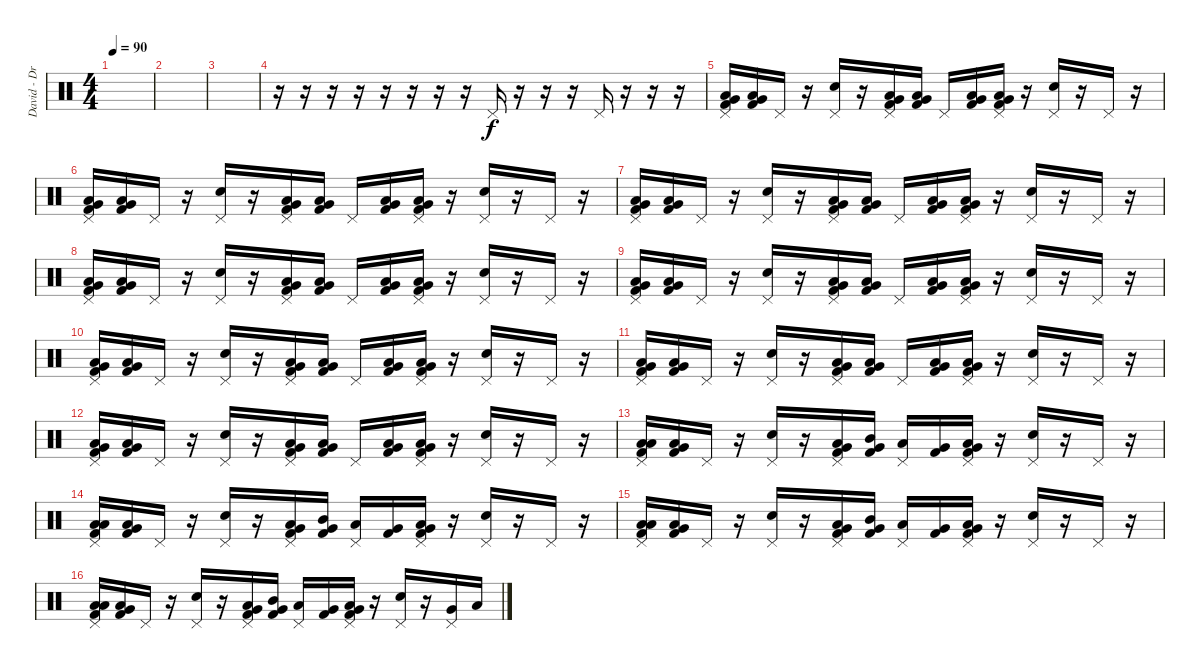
\track ("David - Drums" "David - Dr") {instrument percussion}
\staff {score}
\articulation defaults
\ts (4 4)
\tempo 90
\clef neutral
\ks c
|
|
|
r.16 r.16 r.16 r.16 r.16 r.16 r.16 r.16 "Pedal Hi-Hat (hit)".16 r.16 r.16 r.16 "Pedal Hi-Hat (hit)".16 r.16 r.16 r.16 |
("Pedal Hi-Hat (hit)" "Very Low Tom (hit)" "Low Floor Tom (hit)" "Kick (hit) 2").16 ("Very Low Tom (hit)" "Low Floor Tom (hit)" "Kick (hit) 2").16 "Pedal Hi-Hat (hit)".16 r.16 ("Pedal Hi-Hat (hit)" "Electric Snare (hit)").16 r.16 ("Pedal Hi-Hat (hit)" "Very Low Tom (hit)" "Low Floor Tom (hit)" "Kick (hit) 2").16 ("Very Low Tom (hit)" "Low Floor Tom (hit)" "Kick (hit) 2").16 "Pedal Hi-Hat (hit)".16 ("Very Low Tom (hit)" "Low Floor Tom (hit)" "Kick (hit) 2").16 ("Pedal Hi-Hat (hit)" "Very Low Tom (hit)" "Low Floor Tom (hit)" "Kick (hit) 2").16 r.16 ("Pedal Hi-Hat (hit)" "Electric Snare (hit)").16 r.16 "Pedal Hi-Hat (hit)".16 r.16 |
("Pedal Hi-Hat (hit)" "Very Low Tom (hit)" "Low Floor Tom (hit)" "Kick (hit) 2").16 ("Very Low Tom (hit)" "Low Floor Tom (hit)" "Kick (hit) 2").16 "Pedal Hi-Hat (hit)".16 r.16 ("Pedal Hi-Hat (hit)" "Electric Snare (hit)").16 r.16 ("Pedal Hi-Hat (hit)" "Very Low Tom (hit)" "Low Floor Tom (hit)" "Kick (hit) 2").16 ("Very Low Tom (hit)" "Low Floor Tom (hit)" "Kick (hit) 2").16 "Pedal Hi-Hat (hit)".16 ("Very Low Tom (hit)" "Low Floor Tom (hit)" "Kick (hit) 2").16 ("Pedal Hi-Hat (hit)" "Very Low Tom (hit)" "Low Floor Tom (hit)" "Kick (hit) 2").16 r.16 ("Pedal Hi-Hat (hit)" "Electric Snare (hit)").16 r.16 "Pedal Hi-Hat (hit)".16 r.16 |
("Pedal Hi-Hat (hit)" "Very Low Tom (hit)" "Low Floor Tom (hit)" "Kick (hit) 2").16 ("Very Low Tom (hit)" "Low Floor Tom (hit)" "Kick (hit) 2").16 "Pedal Hi-Hat (hit)".16 r.16 ("Pedal Hi-Hat (hit)" "Electric Snare (hit)").16 r.16 ("Pedal Hi-Hat (hit)" "Very Low Tom (hit)" "Low Floor Tom (hit)" "Kick (hit) 2").16 ("Very Low Tom (hit)" "Low Floor Tom (hit)" "Kick (hit) 2").16 "Pedal Hi-Hat (hit)".16 ("Very Low Tom (hit)" "Low Floor Tom (hit)" "Kick (hit) 2").16 ("Pedal Hi-Hat (hit)" "Very Low Tom (hit)" "Low Floor Tom (hit)" "Kick (hit) 2").16 r.16 ("Pedal Hi-Hat (hit)" "Electric Snare (hit)").16 r.16 "Pedal Hi-Hat (hit)".16 r.16 |
("Pedal Hi-Hat (hit)" "Very Low Tom (hit)" "Low Floor Tom (hit)" "Kick (hit) 2").16 ("Very Low Tom (hit)" "Low Floor Tom (hit)" "Kick (hit) 2").16 "Pedal Hi-Hat (hit)".16 r.16 ("Pedal Hi-Hat (hit)" "Electric Snare (hit)").16 r.16 ("Pedal Hi-Hat (hit)" "Very Low Tom (hit)" "Low Floor Tom (hit)" "Kick (hit) 2").16 ("Very Low Tom (hit)" "Low Floor Tom (hit)" "Kick (hit) 2").16 "Pedal Hi-Hat (hit)".16 ("Very Low Tom (hit)" "Low Floor Tom (hit)" "Kick (hit) 2").16 ("Pedal Hi-Hat (hit)" "Very Low Tom (hit)" "Low Floor Tom (hit)" "Kick (hit) 2").16 r.16 ("Pedal Hi-Hat (hit)" "Electric Snare (hit)").16 r.16 "Pedal Hi-Hat (hit)".16 r.16 |
("Pedal Hi-Hat (hit)" "Very Low Tom (hit)" "Low Floor Tom (hit)" "Kick (hit) 2").16 ("Very Low Tom (hit)" "Low Floor Tom (hit)" "Kick (hit) 2").16 "Pedal Hi-Hat (hit)".16 r.16 ("Pedal Hi-Hat (hit)" "Electric Snare (hit)").16 r.16 ("Pedal Hi-Hat (hit)" "Very Low Tom (hit)" "Low Floor Tom (hit)" "Kick (hit) 2").16 ("Very Low Tom (hit)" "Low Floor Tom (hit)" "Kick (hit) 2").16 "Pedal Hi-Hat (hit)".16 ("Very Low Tom (hit)" "Low Floor Tom (hit)" "Kick (hit) 2").16 ("Pedal Hi-Hat (hit)" "Very Low Tom (hit)" "Low Floor Tom (hit)" "Kick (hit) 2").16 r.16 ("Pedal Hi-Hat (hit)" "Electric Snare (hit)").16 r.16 "Pedal Hi-Hat (hit)".16 r.16 |
("Pedal Hi-Hat (hit)" "Very Low Tom (hit)" "Low Floor Tom (hit)" "Kick (hit) 2").16 ("Very Low Tom (hit)" "Low Floor Tom (hit)" "Kick (hit) 2").16 "Pedal Hi-Hat (hit)".16 r.16 ("Pedal Hi-Hat (hit)" "Electric Snare (hit)").16 r.16 ("Pedal Hi-Hat (hit)" "Very Low Tom (hit)" "Low Floor Tom (hit)" "Kick (hit) 2").16 ("Very Low Tom (hit)" "Low Floor Tom (hit)" "Kick (hit) 2").16 "Pedal Hi-Hat (hit)".16 ("Very Low Tom (hit)" "Low Floor Tom (hit)" "Kick (hit) 2").16 ("Pedal Hi-Hat (hit)" "Very Low Tom (hit)" "Low Floor Tom (hit)" "Kick (hit) 2").16 r.16 ("Pedal Hi-Hat (hit)" "Electric Snare (hit)").16 r.16 "Pedal Hi-Hat (hit)".16 r.16 |
("Pedal Hi-Hat (hit)" "Very Low Tom (hit)" "Low Floor Tom (hit)" "Kick (hit) 2").16 ("Very Low Tom (hit)" "Low Floor Tom (hit)" "Kick (hit) 2").16 "Pedal Hi-Hat (hit)".16 r.16 ("Pedal Hi-Hat (hit)" "Electric Snare (hit)").16 r.16 ("Pedal Hi-Hat (hit)" "Very Low Tom (hit)" "Low Floor Tom (hit)" "Kick (hit) 2").16 ("Very Low Tom (hit)" "Low Floor Tom (hit)" "Kick (hit) 2").16 "Pedal Hi-Hat (hit)".16 ("Very Low Tom (hit)" "Low Floor Tom (hit)" "Kick (hit) 2").16 ("Pedal Hi-Hat (hit)" "Very Low Tom (hit)" "Low Floor Tom (hit)" "Kick (hit) 2").16 r.16 ("Pedal Hi-Hat (hit)" "Electric Snare (hit)").16 r.16 "Pedal Hi-Hat (hit)".16 r.16 |
("Pedal Hi-Hat (hit)" "Very Low Tom (hit)" "Low Floor Tom (hit)" "Kick (hit) 2").16 ("Very Low Tom (hit)" "Low Floor Tom (hit)" "Kick (hit) 2").16 "Pedal Hi-Hat (hit)".16 r.16 ("Pedal Hi-Hat (hit)" "Electric Snare (hit)").16 r.16 ("Pedal Hi-Hat (hit)" "Very Low Tom (hit)" "Low Floor Tom (hit)" "Kick (hit) 2").16 ("Very Low Tom (hit)" "Low Floor Tom (hit)" "Kick (hit) 2").16 "Pedal Hi-Hat (hit)".16 ("Very Low Tom (hit)" "Low Floor Tom (hit)" "Kick (hit) 2").16 ("Pedal Hi-Hat (hit)" "Very Low Tom (hit)" "Low Floor Tom (hit)" "Kick (hit) 2").16 r.16 ("Pedal Hi-Hat (hit)" "Electric Snare (hit)").16 r.16 "Pedal Hi-Hat (hit)".16 r.16 |
("Pedal Hi-Hat (hit)" "Low Tom (hit)" "Low Floor Tom (hit)" "Kick (hit) 2").16 ("Very Low Tom (hit)" "Low Floor Tom (hit)" "Kick (hit) 2").16 "Pedal Hi-Hat (hit)".16 r.16 ("Pedal Hi-Hat (hit)" "Electric Snare (hit)").16 r.16 ("Pedal Hi-Hat (hit)" "Very Low Tom (hit)" "Low Floor Tom (hit)" "Kick (hit) 2").16 ("Very Low Tom (hit)" "Mid Tom (hit)" "Kick (hit) 2").16 ("Pedal Hi-Hat (hit)" "Low Tom (hit)").16 ("Very Low Tom (hit)" "Kick (hit) 2").16 ("Pedal Hi-Hat (hit)" "Very Low Tom (hit)" "Low Floor Tom (hit)" "Kick (hit) 2").16 r.16 ("Pedal Hi-Hat (hit)" "Electric Snare (hit)").16 r.16 "Pedal Hi-Hat (hit)".16 r.16 |
("Pedal Hi-Hat (hit)" "Low Tom (hit)" "Low Floor Tom (hit)" "Kick (hit) 2").16 ("Very Low Tom (hit)" "Low Floor Tom (hit)" "Kick (hit) 2").16 "Pedal Hi-Hat (hit)".16 r.16 ("Pedal Hi-Hat (hit)" "Electric Snare (hit)").16 r.16 ("Pedal Hi-Hat (hit)" "Very Low Tom (hit)" "Low Floor Tom (hit)" "Kick (hit) 2").16 ("Very Low Tom (hit)" "Mid Tom (hit)" "Kick (hit) 2").16 ("Pedal Hi-Hat (hit)" "Low Tom (hit)").16 ("Very Low Tom (hit)" "Kick (hit) 2").16 ("Pedal Hi-Hat (hit)" "Very Low Tom (hit)" "Low Floor Tom (hit)" "Kick (hit) 2").16 r.16 ("Pedal Hi-Hat (hit)" "Electric Snare (hit)").16 r.16 "Pedal Hi-Hat (hit)".16 r.16 |
("Pedal Hi-Hat (hit)" "Low Tom (hit)" "Low Floor Tom (hit)" "Kick (hit) 2").16 ("Very Low Tom (hit)" "Low Floor Tom (hit)" "Kick (hit) 2").16 "Pedal Hi-Hat (hit)".16 r.16 ("Pedal Hi-Hat (hit)" "Electric Snare (hit)").16 r.16 ("Pedal Hi-Hat (hit)" "Very Low Tom (hit)" "Low Floor Tom (hit)" "Kick (hit) 2").16 ("Very Low Tom (hit)" "Mid Tom (hit)" "Kick (hit) 2").16 ("Pedal Hi-Hat (hit)" "Low Tom (hit)").16 ("Very Low Tom (hit)" "Kick (hit) 2").16 ("Pedal Hi-Hat (hit)" "Very Low Tom (hit)" "Low Floor Tom (hit)" "Kick (hit) 2").16 r.16 ("Pedal Hi-Hat (hit)" "Electric Snare (hit)").16 r.16 "Pedal Hi-Hat (hit)".16 r.16 |
("Pedal Hi-Hat (hit)" "Low Tom (hit)" "Low Floor Tom (hit)" "Kick (hit) 2").16 ("Very Low Tom (hit)" "Low Floor Tom (hit)" "Kick (hit) 2").16 "Pedal Hi-Hat (hit)".16 r.16 ("Pedal Hi-Hat (hit)" "Electric Snare (hit)").16 r.16 ("Pedal Hi-Hat (hit)" "Very Low Tom (hit)" "Low Floor Tom (hit)" "Kick (hit) 2").16 ("Very Low Tom (hit)" "Mid Tom (hit)" "Kick (hit) 2").16 ("Pedal Hi-Hat (hit)" "Low Tom (hit)").16 ("Very Low Tom (hit)" "Kick (hit) 2").16 ("Pedal Hi-Hat (hit)" "Very Low Tom (hit)" "Low Floor Tom (hit)" "Kick (hit) 2").16 r.16 ("Pedal Hi-Hat (hit)" "Electric Snare (hit)").16 r.16 ("Pedal Hi-Hat (hit)" "Very Low Tom (hit)").16 "Low Tom (hit)".16
